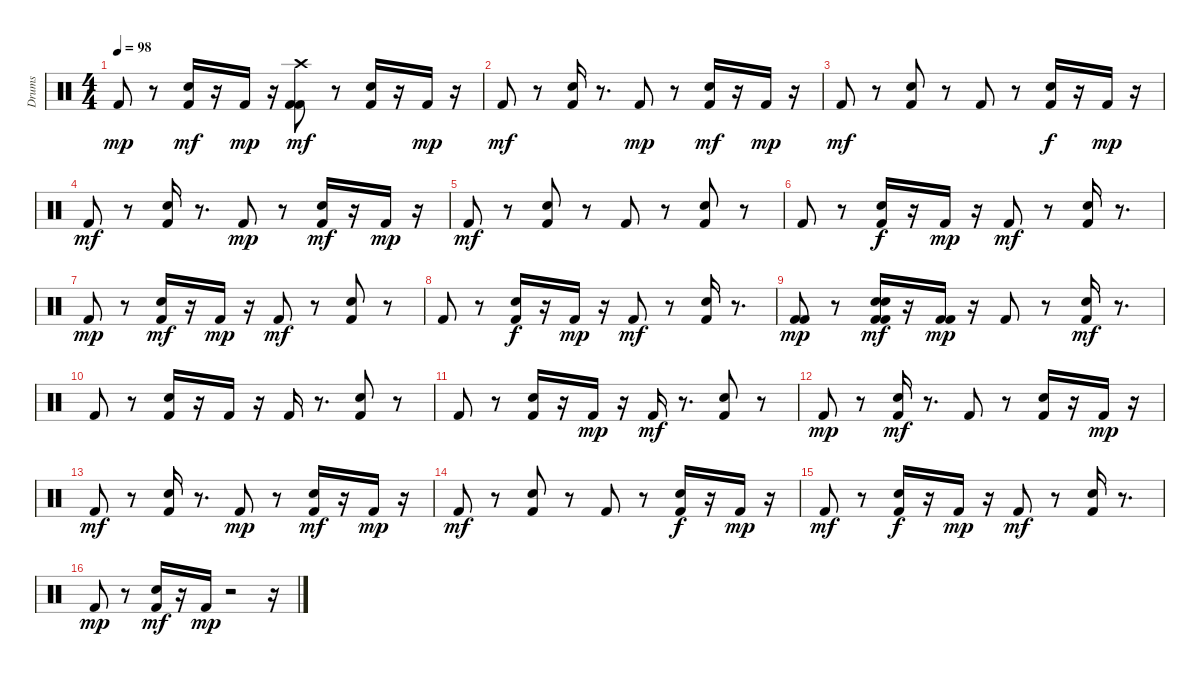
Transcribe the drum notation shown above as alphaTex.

\track ("Drums" "Drums") {instrument percussion}
\staff {score}
\articulation defaults
\ts (4 4)
\tempo 98
\clef neutral
\ks c "Kick (hit) 2".8{dy mp}
r.8 ("Kick (hit) 2" "Snare (hit) 2").16{dy mf} r.16 "Kick (hit) 2".16{dy mp} r.16 ("Kick (hit) 2" "Crash high (hit)" "Kick (hit) 2").8{dy mf} r.8 ("Kick (hit) 2" "Snare (hit) 2").16 r.16 "Kick (hit) 2".16{dy mp} r.16 |
"Kick (hit) 2".8{dy mf} r.8 ("Kick (hit) 2" "Snare (hit) 2").16 r.8{d} "Kick (hit) 2".8{dy mp} r.8 ("Kick (hit) 2" "Snare (hit) 2").16{dy mf} r.16 "Kick (hit) 2".16{dy mp} r.16 |
"Kick (hit) 2".8{dy mf} r.8 ("Kick (hit) 2" "Snare (hit) 2").8 r.8 "Kick (hit) 2".8 r.8 ("Kick (hit) 2" "Snare (hit) 2").16{dy f} r.16 "Kick (hit) 2".16{dy mp} r.16 |
"Kick (hit) 2".8{dy mf} r.8 ("Kick (hit) 2" "Snare (hit) 2").16 r.8{d} "Kick (hit) 2".8{dy mp} r.8 ("Kick (hit) 2" "Snare (hit) 2").16{dy mf} r.16 "Kick (hit) 2".16{dy mp} r.16 |
"Kick (hit) 2".8{dy mf} r.8 ("Kick (hit) 2" "Snare (hit) 2").8 r.8 "Kick (hit) 2".8 r.8 ("Kick (hit) 2" "Snare (hit) 2").8 r.8 |
"Kick (hit) 2".8 r.8 ("Kick (hit) 2" "Snare (hit) 2").16{dy f} r.16 "Kick (hit) 2".16{dy mp} r.16 "Kick (hit) 2".8{dy mf} r.8 ("Kick (hit) 2" "Snare (hit) 2").16 r.8{d} |
"Kick (hit) 2".8{dy mp} r.8 ("Kick (hit) 2" "Snare (hit) 2").16{dy mf} r.16 "Kick (hit) 2".16{dy mp} r.16 "Kick (hit) 2".8{dy mf} r.8 ("Kick (hit) 2" "Snare (hit) 2").8 r.8 |
"Kick (hit) 2".8 r.8 ("Kick (hit) 2" "Snare (hit) 2").16{dy f} r.16 "Kick (hit) 2".16{dy mp} r.16 "Kick (hit) 2".8{dy mf} r.8 ("Kick (hit) 2" "Snare (hit) 2").16 r.8{d} |
("Kick (hit) 2" "Kick (hit) 2").8{dy mp} r.8 ("Kick (hit) 2" "Snare (hit) 2" "Snare (hit) 2" "Kick (hit) 2").16{dy mf} r.16 ("Kick (hit) 2" "Kick (hit) 2").16{dy mp} r.16 "Kick (hit) 2".8 r.8 ("Snare (hit) 2" "Kick (hit) 2").16{dy mf} r.8{d} |
"Kick (hit) 2".8 r.8 ("Kick (hit) 2" "Snare (hit) 2").16 r.16 "Kick (hit) 2".16 r.16 "Kick (hit) 2".16 r.8{d} ("Kick (hit) 2" "Snare (hit) 2").8 r.8 |
"Kick (hit) 2".8 r.8 ("Kick (hit) 2" "Snare (hit) 2").16 r.16 "Kick (hit) 2".16{dy mp} r.16 "Kick (hit) 2".16{dy mf} r.8{d} ("Kick (hit) 2" "Snare (hit) 2").8 r.8 |
"Kick (hit) 2".8{dy mp} r.8 ("Kick (hit) 2" "Snare (hit) 2").16{dy mf} r.8{d} "Kick (hit) 2".8 r.8 ("Kick (hit) 2" "Snare (hit) 2").16 r.16 "Kick (hit) 2".16{dy mp} r.16 |
"Kick (hit) 2".8{dy mf} r.8 ("Kick (hit) 2" "Snare (hit) 2").16 r.8{d} "Kick (hit) 2".8{dy mp} r.8 ("Kick (hit) 2" "Snare (hit) 2").16{dy mf} r.16 "Kick (hit) 2".16{dy mp} r.16 |
"Kick (hit) 2".8{dy mf} r.8 ("Kick (hit) 2" "Snare (hit) 2").8 r.8 "Kick (hit) 2".8 r.8 ("Kick (hit) 2" "Snare (hit) 2").16{dy f} r.16 "Kick (hit) 2".16{dy mp} r.16 |
"Kick (hit) 2".8{dy mf} r.8 ("Kick (hit) 2" "Snare (hit) 2").16{dy f} r.16 "Kick (hit) 2".16{dy mp} r.16 "Kick (hit) 2".8{dy mf} r.8 ("Kick (hit) 2" "Snare (hit) 2").16 r.8{d} |
"Kick (hit) 2".8{dy mp} r.8 ("Kick (hit) 2" "Snare (hit) 2").16{dy mf} r.16 "Kick (hit) 2".16{dy mp} r.2 r.16
